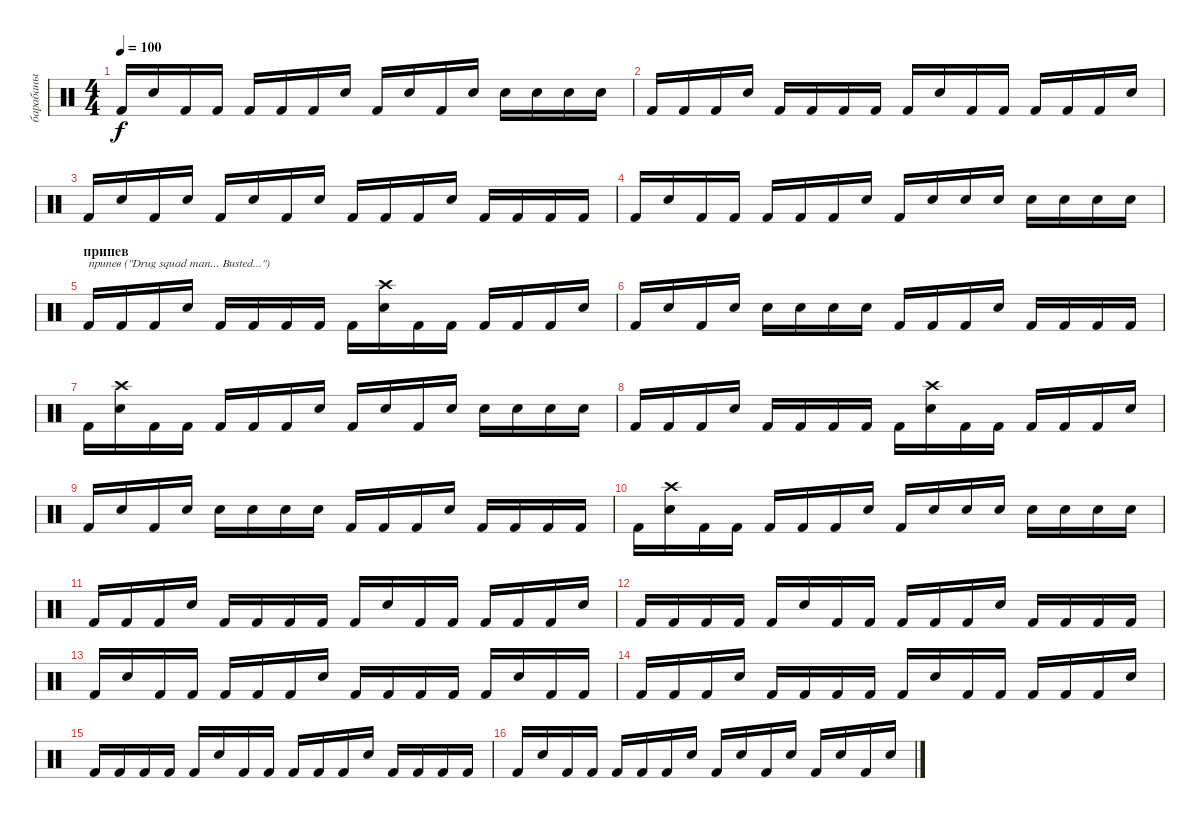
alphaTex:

\track ("барабаны" "барабаны") {instrument percussion}
\staff {score}
\articulation defaults
\ts (4 4)
\tempo 100
\clef neutral
\ks c "Kick (hit) 2".16{dy f} "Electric Snare (hit)".16 "Kick (hit) 2".16 "Kick (hit) 2".16 "Kick (hit) 2".16 "Kick (hit) 2".16 "Kick (hit) 2".16 "Electric Snare (hit)".16 "Kick (hit) 2".16 "Electric Snare (hit)".16 "Kick (hit) 2".16 "Electric Snare (hit)".16 "Electric Snare (hit)".16 "Electric Snare (hit)".16 "Electric Snare (hit)".16 "Electric Snare (hit)".16
|
"Kick (hit) 2".16 "Kick (hit) 2".16 "Kick (hit) 2".16 "Electric Snare (hit)".16 "Kick (hit) 2".16 "Kick (hit) 2".16 "Kick (hit) 2".16 "Kick (hit) 2".16 "Kick (hit) 2".16 "Electric Snare (hit)".16 "Kick (hit) 2".16 "Kick (hit) 2".16 "Kick (hit) 2".16 "Kick (hit) 2".16 "Kick (hit) 2".16 "Electric Snare (hit)".16 |
"Kick (hit) 2".16 "Electric Snare (hit)".16 "Kick (hit) 2".16 "Electric Snare (hit)".16 "Kick (hit) 2".16 "Electric Snare (hit)".16 "Kick (hit) 2".16 "Electric Snare (hit)".16 "Kick (hit) 2".16 "Kick (hit) 2".16 "Kick (hit) 2".16 "Electric Snare (hit)".16 "Kick (hit) 2".16 "Kick (hit) 2".16 "Kick (hit) 2".16 "Kick (hit) 2".16 |
"Kick (hit) 2".16 "Electric Snare (hit)".16 "Kick (hit) 2".16 "Kick (hit) 2".16 "Kick (hit) 2".16 "Kick (hit) 2".16 "Kick (hit) 2".16 "Electric Snare (hit)".16 "Kick (hit) 2".16 "Electric Snare (hit)".16 "Electric Snare (hit)".16 "Electric Snare (hit)".16 "Electric Snare (hit)".16 "Electric Snare (hit)".16 "Electric Snare (hit)".16 "Electric Snare (hit)".16 |
\section ("" "припев")
"Kick (hit) 2".16{txt "припев (\"Drug squad man... Busted...\")"} "Kick (hit) 2".16 "Kick (hit) 2".16 "Electric Snare (hit)".16 "Kick (hit) 2".16 "Kick (hit) 2".16 "Kick (hit) 2".16 "Kick (hit) 2".16 "Kick (hit) 2".16 ("Crash high (hit)" "Electric Snare (hit)").16 "Kick (hit) 2".16 "Kick (hit) 2".16 "Kick (hit) 2".16 "Kick (hit) 2".16 "Kick (hit) 2".16 "Electric Snare (hit)".16 |
"Kick (hit) 2".16 "Electric Snare (hit)".16 "Kick (hit) 2".16 "Electric Snare (hit)".16 "Electric Snare (hit)".16 "Electric Snare (hit)".16 "Electric Snare (hit)".16 "Electric Snare (hit)".16 "Kick (hit) 2".16 "Kick (hit) 2".16 "Kick (hit) 2".16 "Electric Snare (hit)".16 "Kick (hit) 2".16 "Kick (hit) 2".16 "Kick (hit) 2".16 "Kick (hit) 2".16 |
"Kick (hit) 2".16 ("Crash high (hit)" "Electric Snare (hit)").16 "Kick (hit) 2".16 "Kick (hit) 2".16 "Kick (hit) 2".16 "Kick (hit) 2".16 "Kick (hit) 2".16 "Electric Snare (hit)".16 "Kick (hit) 2".16 "Electric Snare (hit)".16 "Kick (hit) 2".16 "Electric Snare (hit)".16 "Electric Snare (hit)".16 "Electric Snare (hit)".16 "Electric Snare (hit)".16 "Electric Snare (hit)".16 |
"Kick (hit) 2".16 "Kick (hit) 2".16 "Kick (hit) 2".16 "Electric Snare (hit)".16 "Kick (hit) 2".16 "Kick (hit) 2".16 "Kick (hit) 2".16 "Kick (hit) 2".16 "Kick (hit) 2".16 ("Crash high (hit)" "Electric Snare (hit)").16 "Kick (hit) 2".16 "Kick (hit) 2".16 "Kick (hit) 2".16 "Kick (hit) 2".16 "Kick (hit) 2".16 "Electric Snare (hit)".16 |
"Kick (hit) 2".16 "Electric Snare (hit)".16 "Kick (hit) 2".16 "Electric Snare (hit)".16 "Electric Snare (hit)".16 "Electric Snare (hit)".16 "Electric Snare (hit)".16 "Electric Snare (hit)".16 "Kick (hit) 2".16 "Kick (hit) 2".16 "Kick (hit) 2".16 "Electric Snare (hit)".16 "Kick (hit) 2".16 "Kick (hit) 2".16 "Kick (hit) 2".16 "Kick (hit) 2".16 |
"Kick (hit) 2".16 ("Crash high (hit)" "Electric Snare (hit)").16 "Kick (hit) 2".16 "Kick (hit) 2".16 "Kick (hit) 2".16 "Kick (hit) 2".16 "Kick (hit) 2".16 "Electric Snare (hit)".16 "Kick (hit) 2".16 "Electric Snare (hit)".16 "Electric Snare (hit)".16 "Electric Snare (hit)".16 "Electric Snare (hit)".16 "Electric Snare (hit)".16 "Electric Snare (hit)".16 "Electric Snare (hit)".16 |
"Kick (hit) 2".16 "Kick (hit) 2".16 "Kick (hit) 2".16 "Electric Snare (hit)".16 "Kick (hit) 2".16 "Kick (hit) 2".16 "Kick (hit) 2".16 "Kick (hit) 2".16 "Kick (hit) 2".16 "Electric Snare (hit)".16 "Kick (hit) 2".16 "Kick (hit) 2".16 "Kick (hit) 2".16 "Kick (hit) 2".16 "Kick (hit) 2".16 "Electric Snare (hit)".16 |
"Kick (hit) 2".16 "Kick (hit) 2".16 "Kick (hit) 2".16 "Kick (hit) 2".16 "Kick (hit) 2".16 "Electric Snare (hit)".16 "Kick (hit) 2".16 "Kick (hit) 2".16 "Kick (hit) 2".16 "Kick (hit) 2".16 "Kick (hit) 2".16 "Electric Snare (hit)".16 "Kick (hit) 2".16 "Kick (hit) 2".16 "Kick (hit) 2".16 "Kick (hit) 2".16 |
"Kick (hit) 2".16 "Electric Snare (hit)".16 "Kick (hit) 2".16 "Kick (hit) 2".16 "Kick (hit) 2".16 "Kick (hit) 2".16 "Kick (hit) 2".16 "Electric Snare (hit)".16 "Kick (hit) 2".16 "Kick (hit) 2".16 "Kick (hit) 2".16 "Kick (hit) 2".16 "Kick (hit) 2".16 "Electric Snare (hit)".16 "Kick (hit) 2".16 "Kick (hit) 2".16 |
"Kick (hit) 2".16 "Kick (hit) 2".16 "Kick (hit) 2".16 "Electric Snare (hit)".16 "Kick (hit) 2".16 "Kick (hit) 2".16 "Kick (hit) 2".16 "Kick (hit) 2".16 "Kick (hit) 2".16 "Electric Snare (hit)".16 "Kick (hit) 2".16 "Kick (hit) 2".16 "Kick (hit) 2".16 "Kick (hit) 2".16 "Kick (hit) 2".16 "Electric Snare (hit)".16 |
"Kick (hit) 2".16 "Kick (hit) 2".16 "Kick (hit) 2".16 "Kick (hit) 2".16 "Kick (hit) 2".16 "Electric Snare (hit)".16 "Kick (hit) 2".16 "Kick (hit) 2".16 "Kick (hit) 2".16 "Kick (hit) 2".16 "Kick (hit) 2".16 "Electric Snare (hit)".16 "Kick (hit) 2".16 "Kick (hit) 2".16 "Kick (hit) 2".16 "Kick (hit) 2".16 |
"Kick (hit) 2".16 "Electric Snare (hit)".16 "Kick (hit) 2".16 "Kick (hit) 2".16 "Kick (hit) 2".16 "Kick (hit) 2".16 "Kick (hit) 2".16 "Electric Snare (hit)".16 "Kick (hit) 2".16 "Electric Snare (hit)".16 "Kick (hit) 2".16 "Electric Snare (hit)".16 "Kick (hit) 2".16 "Electric Snare (hit)".16 "Kick (hit) 2".16 "Electric Snare (hit)".16
